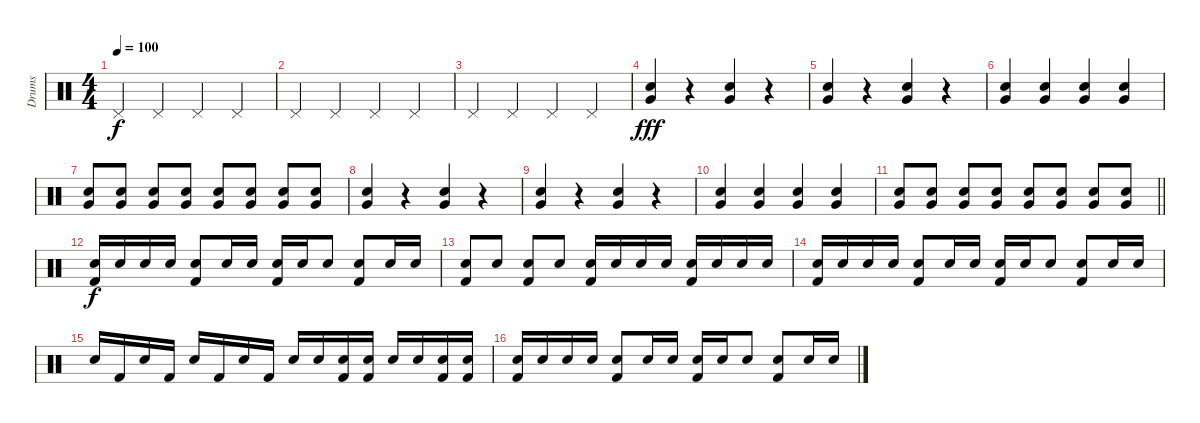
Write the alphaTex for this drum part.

\track ("Drums" "Drums") {instrument percussion}
\staff {score}
\articulation defaults
\ts (4 4)
\tempo 100
\clef neutral
\ks c "Pedal Hi-Hat (hit)".4{dy f} "Pedal Hi-Hat (hit)".4 "Pedal Hi-Hat (hit)".4 "Pedal Hi-Hat (hit)".4
|
"Pedal Hi-Hat (hit)".4 "Pedal Hi-Hat (hit)".4 "Pedal Hi-Hat (hit)".4 "Pedal Hi-Hat (hit)".4 |
"Pedal Hi-Hat (hit)".4 "Pedal Hi-Hat (hit)".4 "Pedal Hi-Hat (hit)".4 "Pedal Hi-Hat (hit)".4 |
("Snare (hit) 2" "Very Low Tom (hit)").4{dy fff} r.4 ("Snare (hit) 2" "Very Low Tom (hit)").4 r.4 |
("Snare (hit) 2" "Very Low Tom (hit)").4 r.4 ("Snare (hit) 2" "Very Low Tom (hit)").4 r.4 |
("Snare (hit) 2" "Very Low Tom (hit)").4 ("Snare (hit) 2" "Very Low Tom (hit)").4 ("Snare (hit) 2" "Very Low Tom (hit)").4 ("Snare (hit) 2" "Very Low Tom (hit)").4 |
("Snare (hit) 2" "Very Low Tom (hit)").8 ("Snare (hit) 2" "Very Low Tom (hit)").8 ("Snare (hit) 2" "Very Low Tom (hit)").8 ("Snare (hit) 2" "Very Low Tom (hit)").8 ("Snare (hit) 2" "Very Low Tom (hit)").8 ("Snare (hit) 2" "Very Low Tom (hit)").8 ("Snare (hit) 2" "Very Low Tom (hit)").8 ("Snare (hit) 2" "Very Low Tom (hit)").8 |
("Snare (hit) 2" "Very Low Tom (hit)").4 r.4 ("Snare (hit) 2" "Very Low Tom (hit)").4 r.4 |
("Snare (hit) 2" "Very Low Tom (hit)").4 r.4 ("Snare (hit) 2" "Very Low Tom (hit)").4 r.4 |
("Snare (hit) 2" "Very Low Tom (hit)").4 ("Snare (hit) 2" "Very Low Tom (hit)").4 ("Snare (hit) 2" "Very Low Tom (hit)").4 ("Snare (hit) 2" "Very Low Tom (hit)").4 |
\barLineRight lightlight
("Snare (hit) 2" "Very Low Tom (hit)").8 ("Snare (hit) 2" "Very Low Tom (hit)").8 ("Snare (hit) 2" "Very Low Tom (hit)").8 ("Snare (hit) 2" "Very Low Tom (hit)").8 ("Snare (hit) 2" "Very Low Tom (hit)").8 ("Snare (hit) 2" "Very Low Tom (hit)").8 ("Snare (hit) 2" "Very Low Tom (hit)").8 ("Snare (hit) 2" "Very Low Tom (hit)").8 |
("Snare (hit) 2" "Kick (hit) 2").16{dy f} "Snare (hit) 2".16 "Snare (hit) 2".16 "Snare (hit) 2".16 ("Snare (hit) 2" "Kick (hit) 2").8 "Snare (hit) 2".16 "Snare (hit) 2".16 ("Snare (hit) 2" "Kick (hit) 2").16 "Snare (hit) 2".16 "Snare (hit) 2".8 ("Snare (hit) 2" "Kick (hit) 2").8 "Snare (hit) 2".16 "Snare (hit) 2".16 |
("Snare (hit) 2" "Kick (hit) 2").8 "Snare (hit) 2".8 ("Snare (hit) 2" "Kick (hit) 2").8 "Snare (hit) 2".8 ("Snare (hit) 2" "Kick (hit) 2").16 "Snare (hit) 2".16 "Snare (hit) 2".16 "Snare (hit) 2".16 ("Snare (hit) 2" "Kick (hit) 2").16 "Snare (hit) 2".16 "Snare (hit) 2".16 "Snare (hit) 2".16 |
("Snare (hit) 2" "Kick (hit) 2").16 "Snare (hit) 2".16 "Snare (hit) 2".16 "Snare (hit) 2".16 ("Snare (hit) 2" "Kick (hit) 2").8 "Snare (hit) 2".16 "Snare (hit) 2".16 ("Snare (hit) 2" "Kick (hit) 2").16 "Snare (hit) 2".16 "Snare (hit) 2".8 ("Snare (hit) 2" "Kick (hit) 2").8 "Snare (hit) 2".16 "Snare (hit) 2".16 |
"Snare (hit) 2".16 "Kick (hit) 2".16 "Snare (hit) 2".16 "Kick (hit) 2".16 "Snare (hit) 2".16 "Kick (hit) 2".16 "Snare (hit) 2".16 "Kick (hit) 2".16 "Snare (hit) 2".16 "Snare (hit) 2".16 ("Snare (hit) 2" "Kick (hit) 2").16 ("Snare (hit) 2" "Kick (hit) 2").16 "Snare (hit) 2".16 "Snare (hit) 2".16 ("Snare (hit) 2" "Kick (hit) 2").16 ("Snare (hit) 2" "Kick (hit) 2").16 |
("Snare (hit) 2" "Kick (hit) 2").16 "Snare (hit) 2".16 "Snare (hit) 2".16 "Snare (hit) 2".16 ("Snare (hit) 2" "Kick (hit) 2").8 "Snare (hit) 2".16 "Snare (hit) 2".16 ("Snare (hit) 2" "Kick (hit) 2").16 "Snare (hit) 2".16 "Snare (hit) 2".8 ("Snare (hit) 2" "Kick (hit) 2").8 "Snare (hit) 2".16 "Snare (hit) 2".16
